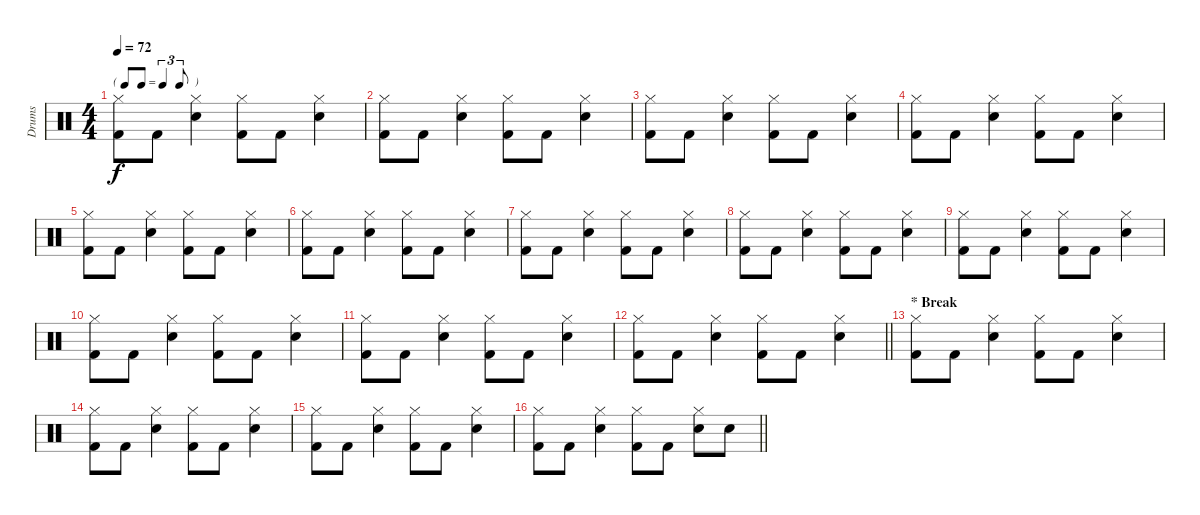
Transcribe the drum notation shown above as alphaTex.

\track ("Drums" "Drums") {instrument percussion}
\staff {score}
\articulation defaults
\ts (4 4)
\tf triplet8th
\tempo 72
\clef neutral
\ks c
("Hi-Hat (closed)" "Kick (hit) 2").8{dy f} "Kick (hit) 2".8 ("Hi-Hat (closed)" "Electric Snare (hit)").4 ("Hi-Hat (closed)" "Kick (hit) 2").8 "Kick (hit) 2".8 ("Hi-Hat (closed)" "Electric Snare (hit)").4 |
("Hi-Hat (closed)" "Kick (hit) 2").8 "Kick (hit) 2".8 ("Hi-Hat (closed)" "Electric Snare (hit)").4 ("Hi-Hat (closed)" "Kick (hit) 2").8 "Kick (hit) 2".8 ("Hi-Hat (closed)" "Electric Snare (hit)").4 |
("Hi-Hat (closed)" "Kick (hit) 2").8 "Kick (hit) 2".8 ("Hi-Hat (closed)" "Electric Snare (hit)").4 ("Hi-Hat (closed)" "Kick (hit) 2").8 "Kick (hit) 2".8 ("Hi-Hat (closed)" "Electric Snare (hit)").4 |
("Hi-Hat (closed)" "Kick (hit) 2").8 "Kick (hit) 2".8 ("Hi-Hat (closed)" "Electric Snare (hit)").4 ("Hi-Hat (closed)" "Kick (hit) 2").8 "Kick (hit) 2".8 ("Hi-Hat (closed)" "Electric Snare (hit)").4 |
("Hi-Hat (closed)" "Kick (hit) 2").8 "Kick (hit) 2".8 ("Hi-Hat (closed)" "Electric Snare (hit)").4 ("Hi-Hat (closed)" "Kick (hit) 2").8 "Kick (hit) 2".8 ("Hi-Hat (closed)" "Electric Snare (hit)").4 |
("Hi-Hat (closed)" "Kick (hit) 2").8 "Kick (hit) 2".8 ("Hi-Hat (closed)" "Electric Snare (hit)").4 ("Hi-Hat (closed)" "Kick (hit) 2").8 "Kick (hit) 2".8 ("Hi-Hat (closed)" "Electric Snare (hit)").4 |
("Hi-Hat (closed)" "Kick (hit) 2").8 "Kick (hit) 2".8 ("Hi-Hat (closed)" "Electric Snare (hit)").4 ("Hi-Hat (closed)" "Kick (hit) 2").8 "Kick (hit) 2".8 ("Hi-Hat (closed)" "Electric Snare (hit)").4 |
("Hi-Hat (closed)" "Kick (hit) 2").8 "Kick (hit) 2".8 ("Hi-Hat (closed)" "Electric Snare (hit)").4 ("Hi-Hat (closed)" "Kick (hit) 2").8 "Kick (hit) 2".8 ("Hi-Hat (closed)" "Electric Snare (hit)").4 |
("Hi-Hat (closed)" "Kick (hit) 2").8 "Kick (hit) 2".8 ("Hi-Hat (closed)" "Electric Snare (hit)").4 ("Hi-Hat (closed)" "Kick (hit) 2").8 "Kick (hit) 2".8 ("Hi-Hat (closed)" "Electric Snare (hit)").4 |
("Hi-Hat (closed)" "Kick (hit) 2").8 "Kick (hit) 2".8 ("Hi-Hat (closed)" "Electric Snare (hit)").4 ("Hi-Hat (closed)" "Kick (hit) 2").8 "Kick (hit) 2".8 ("Hi-Hat (closed)" "Electric Snare (hit)").4 |
("Hi-Hat (closed)" "Kick (hit) 2").8 "Kick (hit) 2".8 ("Hi-Hat (closed)" "Electric Snare (hit)").4 ("Hi-Hat (closed)" "Kick (hit) 2").8 "Kick (hit) 2".8 ("Hi-Hat (closed)" "Electric Snare (hit)").4 |
\barLineRight lightlight
("Hi-Hat (closed)" "Kick (hit) 2").8 "Kick (hit) 2".8 ("Hi-Hat (closed)" "Electric Snare (hit)").4 ("Hi-Hat (closed)" "Kick (hit) 2").8 "Kick (hit) 2".8 ("Hi-Hat (closed)" "Electric Snare (hit)").4 |
\section ("" "* Break")
("Hi-Hat (closed)" "Kick (hit) 2").8 "Kick (hit) 2".8 ("Hi-Hat (closed)" "Electric Snare (hit)").4 ("Hi-Hat (closed)" "Kick (hit) 2").8 "Kick (hit) 2".8 ("Hi-Hat (closed)" "Electric Snare (hit)").4 |
("Hi-Hat (closed)" "Kick (hit) 2").8 "Kick (hit) 2".8 ("Hi-Hat (closed)" "Electric Snare (hit)").4 ("Hi-Hat (closed)" "Kick (hit) 2").8 "Kick (hit) 2".8 ("Hi-Hat (closed)" "Electric Snare (hit)").4 |
("Hi-Hat (closed)" "Kick (hit) 2").8 "Kick (hit) 2".8 ("Hi-Hat (closed)" "Electric Snare (hit)").4 ("Hi-Hat (closed)" "Kick (hit) 2").8 "Kick (hit) 2".8 ("Hi-Hat (closed)" "Electric Snare (hit)").4 |
\barLineRight lightlight
("Hi-Hat (closed)" "Kick (hit) 2").8 "Kick (hit) 2".8 ("Hi-Hat (closed)" "Electric Snare (hit)").4 ("Hi-Hat (closed)" "Kick (hit) 2").8 "Kick (hit) 2".8 ("Hi-Hat (closed)" "Electric Snare (hit)").8 "Electric Snare (hit)".8
